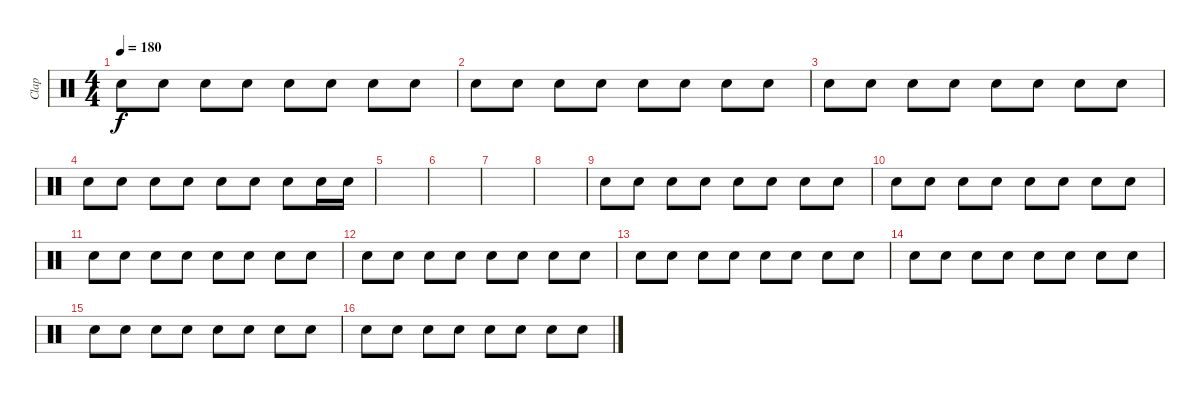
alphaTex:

\track ("Clap" "Clap") {instrument percussion}
\staff {score}
\articulation defaults
\ts (4 4)
\tempo 180
\clef neutral
\ks c "Hand Clap (hit)".8{dy f} "Hand Clap (hit)".8 "Hand Clap (hit)".8 "Hand Clap (hit)".8 "Hand Clap (hit)".8 "Hand Clap (hit)".8 "Hand Clap (hit)".8 "Hand Clap (hit)".8
|
"Hand Clap (hit)".8 "Hand Clap (hit)".8 "Hand Clap (hit)".8 "Hand Clap (hit)".8 "Hand Clap (hit)".8 "Hand Clap (hit)".8 "Hand Clap (hit)".8 "Hand Clap (hit)".8 |
"Hand Clap (hit)".8 "Hand Clap (hit)".8 "Hand Clap (hit)".8 "Hand Clap (hit)".8 "Hand Clap (hit)".8 "Hand Clap (hit)".8 "Hand Clap (hit)".8 "Hand Clap (hit)".8 |
"Hand Clap (hit)".8 "Hand Clap (hit)".8 "Hand Clap (hit)".8 "Hand Clap (hit)".8 "Hand Clap (hit)".8 "Hand Clap (hit)".8 "Hand Clap (hit)".8 "Hand Clap (hit)".16 "Hand Clap (hit)".16 |
|
|
|
|
"Hand Clap (hit)".8 "Hand Clap (hit)".8 "Hand Clap (hit)".8 "Hand Clap (hit)".8 "Hand Clap (hit)".8 "Hand Clap (hit)".8 "Hand Clap (hit)".8 "Hand Clap (hit)".8 |
"Hand Clap (hit)".8 "Hand Clap (hit)".8 "Hand Clap (hit)".8 "Hand Clap (hit)".8 "Hand Clap (hit)".8 "Hand Clap (hit)".8 "Hand Clap (hit)".8 "Hand Clap (hit)".8 |
"Hand Clap (hit)".8 "Hand Clap (hit)".8 "Hand Clap (hit)".8 "Hand Clap (hit)".8 "Hand Clap (hit)".8 "Hand Clap (hit)".8 "Hand Clap (hit)".8 "Hand Clap (hit)".8 |
"Hand Clap (hit)".8 "Hand Clap (hit)".8 "Hand Clap (hit)".8 "Hand Clap (hit)".8 "Hand Clap (hit)".8 "Hand Clap (hit)".8 "Hand Clap (hit)".8 "Hand Clap (hit)".8 |
"Hand Clap (hit)".8 "Hand Clap (hit)".8 "Hand Clap (hit)".8 "Hand Clap (hit)".8 "Hand Clap (hit)".8 "Hand Clap (hit)".8 "Hand Clap (hit)".8 "Hand Clap (hit)".8 |
"Hand Clap (hit)".8 "Hand Clap (hit)".8 "Hand Clap (hit)".8 "Hand Clap (hit)".8 "Hand Clap (hit)".8 "Hand Clap (hit)".8 "Hand Clap (hit)".8 "Hand Clap (hit)".8 |
"Hand Clap (hit)".8 "Hand Clap (hit)".8 "Hand Clap (hit)".8 "Hand Clap (hit)".8 "Hand Clap (hit)".8 "Hand Clap (hit)".8 "Hand Clap (hit)".8 "Hand Clap (hit)".8 |
"Hand Clap (hit)".8 "Hand Clap (hit)".8 "Hand Clap (hit)".8 "Hand Clap (hit)".8 "Hand Clap (hit)".8 "Hand Clap (hit)".8 "Hand Clap (hit)".8 "Hand Clap (hit)".8
